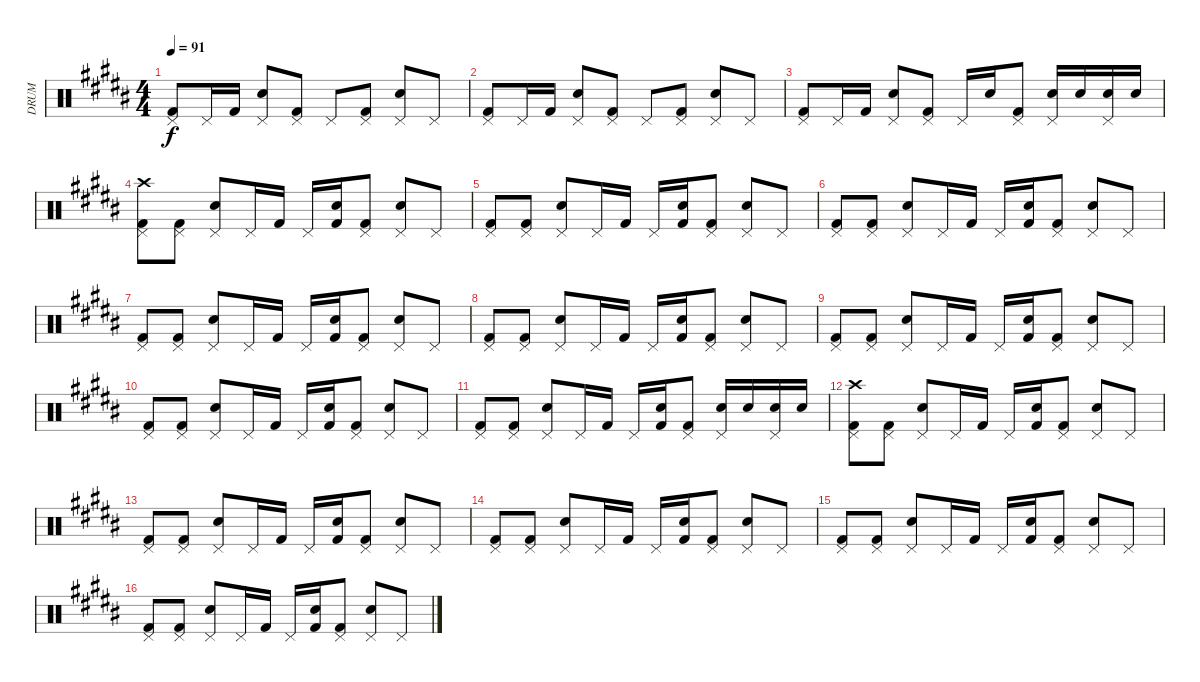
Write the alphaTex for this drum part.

\track ("DRUM" "DRUM") {instrument percussion}
\staff {score}
\articulation defaults
\ts (4 4)
\tempo 91
\clef neutral
\ks b
("Pedal Hi-Hat (hit)" "Kick (hit) 2").8{dy f} "Pedal Hi-Hat (hit)".16 "Kick (hit) 2".16 ("Pedal Hi-Hat (hit)" "Electric Snare (hit)").8 ("Pedal Hi-Hat (hit)" "Kick (hit) 2").8 "Pedal Hi-Hat (hit)".8 ("Pedal Hi-Hat (hit)" "Kick (hit) 2").8 ("Pedal Hi-Hat (hit)" "Electric Snare (hit)").8 "Pedal Hi-Hat (hit)".8 |
("Pedal Hi-Hat (hit)" "Kick (hit) 2").8 "Pedal Hi-Hat (hit)".16 "Kick (hit) 2".16 ("Pedal Hi-Hat (hit)" "Electric Snare (hit)").8 ("Pedal Hi-Hat (hit)" "Kick (hit) 2").8 "Pedal Hi-Hat (hit)".8 ("Pedal Hi-Hat (hit)" "Kick (hit) 2").8 ("Pedal Hi-Hat (hit)" "Electric Snare (hit)").8 "Pedal Hi-Hat (hit)".8 |
("Pedal Hi-Hat (hit)" "Kick (hit) 2").8 "Pedal Hi-Hat (hit)".16 "Kick (hit) 2".16 ("Pedal Hi-Hat (hit)" "Electric Snare (hit)").8 ("Pedal Hi-Hat (hit)" "Kick (hit) 2").8 "Pedal Hi-Hat (hit)".16 "Electric Snare (hit)".16 ("Pedal Hi-Hat (hit)" "Kick (hit) 2").8 ("Pedal Hi-Hat (hit)" "Electric Snare (hit)").16 "Electric Snare (hit)".16 ("Pedal Hi-Hat (hit)" "Electric Snare (hit)").16 "Electric Snare (hit)".16 |
("Crash high (hit)" "Pedal Hi-Hat (hit)" "Kick (hit) 2").8 ("Pedal Hi-Hat (hit)" "Kick (hit) 2").8 ("Pedal Hi-Hat (hit)" "Electric Snare (hit)").8 "Pedal Hi-Hat (hit)".16 "Kick (hit) 2".16 "Pedal Hi-Hat (hit)".16 ("Electric Snare (hit)" "Kick (hit) 2").16 ("Pedal Hi-Hat (hit)" "Kick (hit) 2").8 ("Pedal Hi-Hat (hit)" "Electric Snare (hit)").8 "Pedal Hi-Hat (hit)".8 |
("Pedal Hi-Hat (hit)" "Kick (hit) 2").8 ("Pedal Hi-Hat (hit)" "Kick (hit) 2").8 ("Pedal Hi-Hat (hit)" "Electric Snare (hit)").8 "Pedal Hi-Hat (hit)".16 "Kick (hit) 2".16 "Pedal Hi-Hat (hit)".16 ("Electric Snare (hit)" "Kick (hit) 2").16 ("Pedal Hi-Hat (hit)" "Kick (hit) 2").8 ("Pedal Hi-Hat (hit)" "Electric Snare (hit)").8 "Pedal Hi-Hat (hit)".8 |
("Pedal Hi-Hat (hit)" "Kick (hit) 2").8 ("Pedal Hi-Hat (hit)" "Kick (hit) 2").8 ("Pedal Hi-Hat (hit)" "Electric Snare (hit)").8 "Pedal Hi-Hat (hit)".16 "Kick (hit) 2".16 "Pedal Hi-Hat (hit)".16 ("Electric Snare (hit)" "Kick (hit) 2").16 ("Pedal Hi-Hat (hit)" "Kick (hit) 2").8 ("Pedal Hi-Hat (hit)" "Electric Snare (hit)").8 "Pedal Hi-Hat (hit)".8 |
("Pedal Hi-Hat (hit)" "Kick (hit) 2").8 ("Pedal Hi-Hat (hit)" "Kick (hit) 2").8 ("Pedal Hi-Hat (hit)" "Electric Snare (hit)").8 "Pedal Hi-Hat (hit)".16 "Kick (hit) 2".16 "Pedal Hi-Hat (hit)".16 ("Electric Snare (hit)" "Kick (hit) 2").16 ("Pedal Hi-Hat (hit)" "Kick (hit) 2").8 ("Pedal Hi-Hat (hit)" "Electric Snare (hit)").8 "Pedal Hi-Hat (hit)".8 |
("Pedal Hi-Hat (hit)" "Kick (hit) 2").8 ("Pedal Hi-Hat (hit)" "Kick (hit) 2").8 ("Pedal Hi-Hat (hit)" "Electric Snare (hit)").8 "Pedal Hi-Hat (hit)".16 "Kick (hit) 2".16 "Pedal Hi-Hat (hit)".16 ("Electric Snare (hit)" "Kick (hit) 2").16 ("Pedal Hi-Hat (hit)" "Kick (hit) 2").8 ("Pedal Hi-Hat (hit)" "Electric Snare (hit)").8 "Pedal Hi-Hat (hit)".8 |
("Pedal Hi-Hat (hit)" "Kick (hit) 2").8 ("Pedal Hi-Hat (hit)" "Kick (hit) 2").8 ("Pedal Hi-Hat (hit)" "Electric Snare (hit)").8 "Pedal Hi-Hat (hit)".16 "Kick (hit) 2".16 "Pedal Hi-Hat (hit)".16 ("Electric Snare (hit)" "Kick (hit) 2").16 ("Pedal Hi-Hat (hit)" "Kick (hit) 2").8 ("Pedal Hi-Hat (hit)" "Electric Snare (hit)").8 "Pedal Hi-Hat (hit)".8 |
("Pedal Hi-Hat (hit)" "Kick (hit) 2").8 ("Pedal Hi-Hat (hit)" "Kick (hit) 2").8 ("Pedal Hi-Hat (hit)" "Electric Snare (hit)").8 "Pedal Hi-Hat (hit)".16 "Kick (hit) 2".16 "Pedal Hi-Hat (hit)".16 ("Electric Snare (hit)" "Kick (hit) 2").16 ("Pedal Hi-Hat (hit)" "Kick (hit) 2").8 ("Pedal Hi-Hat (hit)" "Electric Snare (hit)").8 "Pedal Hi-Hat (hit)".8 |
("Pedal Hi-Hat (hit)" "Kick (hit) 2").8 ("Pedal Hi-Hat (hit)" "Kick (hit) 2").8 ("Pedal Hi-Hat (hit)" "Electric Snare (hit)").8 "Pedal Hi-Hat (hit)".16 "Kick (hit) 2".16 "Pedal Hi-Hat (hit)".16 ("Electric Snare (hit)" "Kick (hit) 2").16 ("Pedal Hi-Hat (hit)" "Kick (hit) 2").8 ("Pedal Hi-Hat (hit)" "Electric Snare (hit)").16 "Electric Snare (hit)".16 ("Pedal Hi-Hat (hit)" "Electric Snare (hit)").16 "Electric Snare (hit)".16 |
("Crash high (hit)" "Pedal Hi-Hat (hit)" "Kick (hit) 2").8 ("Pedal Hi-Hat (hit)" "Kick (hit) 2").8 ("Pedal Hi-Hat (hit)" "Electric Snare (hit)").8 "Pedal Hi-Hat (hit)".16 "Kick (hit) 2".16 "Pedal Hi-Hat (hit)".16 ("Electric Snare (hit)" "Kick (hit) 2").16 ("Pedal Hi-Hat (hit)" "Kick (hit) 2").8 ("Pedal Hi-Hat (hit)" "Electric Snare (hit)").8 "Pedal Hi-Hat (hit)".8 |
("Pedal Hi-Hat (hit)" "Kick (hit) 2").8 ("Pedal Hi-Hat (hit)" "Kick (hit) 2").8 ("Pedal Hi-Hat (hit)" "Electric Snare (hit)").8 "Pedal Hi-Hat (hit)".16 "Kick (hit) 2".16 "Pedal Hi-Hat (hit)".16 ("Electric Snare (hit)" "Kick (hit) 2").16 ("Pedal Hi-Hat (hit)" "Kick (hit) 2").8 ("Pedal Hi-Hat (hit)" "Electric Snare (hit)").8 "Pedal Hi-Hat (hit)".8 |
("Pedal Hi-Hat (hit)" "Kick (hit) 2").8 ("Pedal Hi-Hat (hit)" "Kick (hit) 2").8 ("Pedal Hi-Hat (hit)" "Electric Snare (hit)").8 "Pedal Hi-Hat (hit)".16 "Kick (hit) 2".16 "Pedal Hi-Hat (hit)".16 ("Electric Snare (hit)" "Kick (hit) 2").16 ("Pedal Hi-Hat (hit)" "Kick (hit) 2").8 ("Pedal Hi-Hat (hit)" "Electric Snare (hit)").8 "Pedal Hi-Hat (hit)".8 |
("Pedal Hi-Hat (hit)" "Kick (hit) 2").8 ("Pedal Hi-Hat (hit)" "Kick (hit) 2").8 ("Pedal Hi-Hat (hit)" "Electric Snare (hit)").8 "Pedal Hi-Hat (hit)".16 "Kick (hit) 2".16 "Pedal Hi-Hat (hit)".16 ("Electric Snare (hit)" "Kick (hit) 2").16 ("Pedal Hi-Hat (hit)" "Kick (hit) 2").8 ("Pedal Hi-Hat (hit)" "Electric Snare (hit)").8 "Pedal Hi-Hat (hit)".8 |
("Pedal Hi-Hat (hit)" "Kick (hit) 2").8 ("Pedal Hi-Hat (hit)" "Kick (hit) 2").8 ("Pedal Hi-Hat (hit)" "Electric Snare (hit)").8 "Pedal Hi-Hat (hit)".16 "Kick (hit) 2".16 "Pedal Hi-Hat (hit)".16 ("Electric Snare (hit)" "Kick (hit) 2").16 ("Pedal Hi-Hat (hit)" "Kick (hit) 2").8 ("Pedal Hi-Hat (hit)" "Electric Snare (hit)").8 "Pedal Hi-Hat (hit)".8
